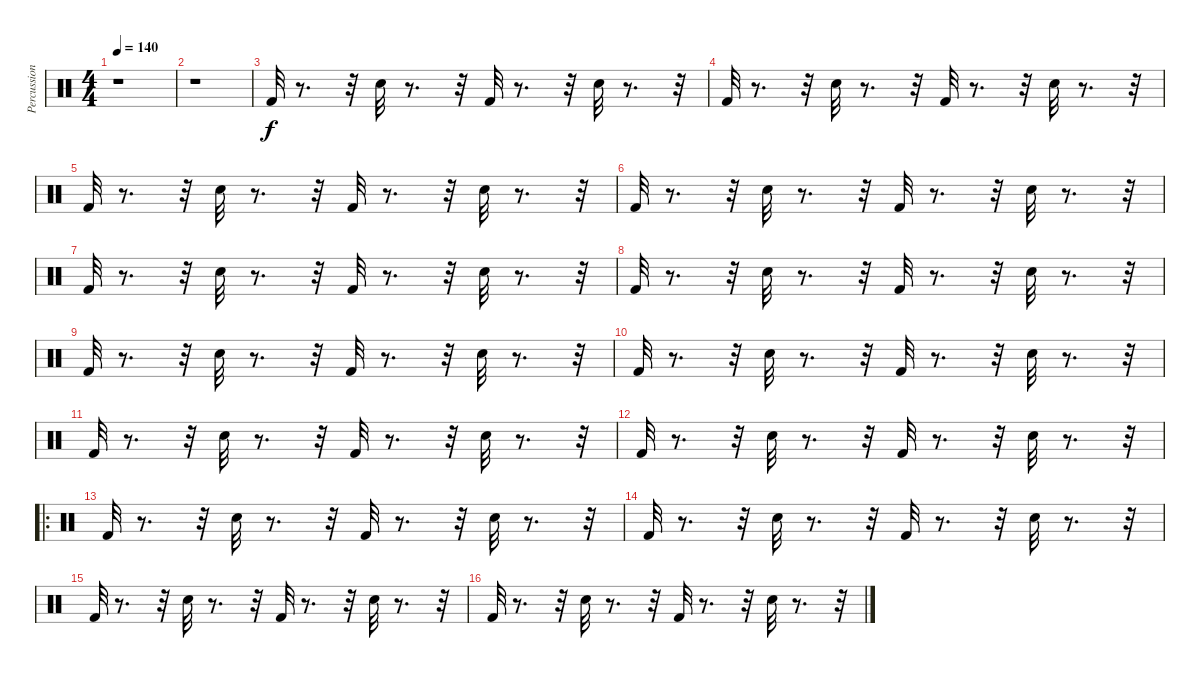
\track ("Percussion 2" "Percussion") {instrument percussion}
\staff {score}
\articulation defaults
\ts (4 4)
\tempo 140
\clef neutral
\ks c
r.1{dy f} |
r.1 |
"Kick (hit) 2".32 r.8{d} r.32 "Snare (hit) 2".32 r.8{d} r.32 "Kick (hit) 2".32 r.8{d} r.32 "Snare (hit) 2".32 r.8{d} r.32 |
"Kick (hit) 2".32 r.8{d} r.32 "Snare (hit) 2".32 r.8{d} r.32 "Kick (hit) 2".32 r.8{d} r.32 "Snare (hit) 2".32 r.8{d} r.32 |
"Kick (hit) 2".32 r.8{d} r.32 "Snare (hit) 2".32 r.8{d} r.32 "Kick (hit) 2".32 r.8{d} r.32 "Snare (hit) 2".32 r.8{d} r.32 |
"Kick (hit) 2".32 r.8{d} r.32 "Snare (hit) 2".32 r.8{d} r.32 "Kick (hit) 2".32 r.8{d} r.32 "Snare (hit) 2".32 r.8{d} r.32 |
"Kick (hit) 2".32 r.8{d} r.32 "Snare (hit) 2".32 r.8{d} r.32 "Kick (hit) 2".32 r.8{d} r.32 "Snare (hit) 2".32 r.8{d} r.32 |
"Kick (hit) 2".32 r.8{d} r.32 "Snare (hit) 2".32 r.8{d} r.32 "Kick (hit) 2".32 r.8{d} r.32 "Snare (hit) 2".32 r.8{d} r.32 |
"Kick (hit) 2".32 r.8{d} r.32 "Snare (hit) 2".32 r.8{d} r.32 "Kick (hit) 2".32 r.8{d} r.32 "Snare (hit) 2".32 r.8{d} r.32 |
"Kick (hit) 2".32 r.8{d} r.32 "Snare (hit) 2".32 r.8{d} r.32 "Kick (hit) 2".32 r.8{d} r.32 "Snare (hit) 2".32 r.8{d} r.32 |
"Kick (hit) 2".32 r.8{d} r.32 "Snare (hit) 2".32 r.8{d} r.32 "Kick (hit) 2".32 r.8{d} r.32 "Snare (hit) 2".32 r.8{d} r.32 |
"Kick (hit) 2".32 r.8{d} r.32 "Snare (hit) 2".32 r.8{d} r.32 "Kick (hit) 2".32 r.8{d} r.32 "Snare (hit) 2".32 r.8{d} r.32 |
\ro "Kick (hit) 2".32
r.8{d} r.32 "Snare (hit) 2".32 r.8{d} r.32 "Kick (hit) 2".32 r.8{d} r.32 "Snare (hit) 2".32 r.8{d} r.32 |
"Kick (hit) 2".32 r.8{d} r.32 "Snare (hit) 2".32 r.8{d} r.32 "Kick (hit) 2".32 r.8{d} r.32 "Snare (hit) 2".32 r.8{d} r.32 |
"Kick (hit) 2".32 r.8{d} r.32 "Snare (hit) 2".32 r.8{d} r.32 "Kick (hit) 2".32 r.8{d} r.32 "Snare (hit) 2".32 r.8{d} r.32 |
"Kick (hit) 2".32 r.8{d} r.32 "Snare (hit) 2".32 r.8{d} r.32 "Kick (hit) 2".32 r.8{d} r.32 "Snare (hit) 2".32 r.8{d} r.32
